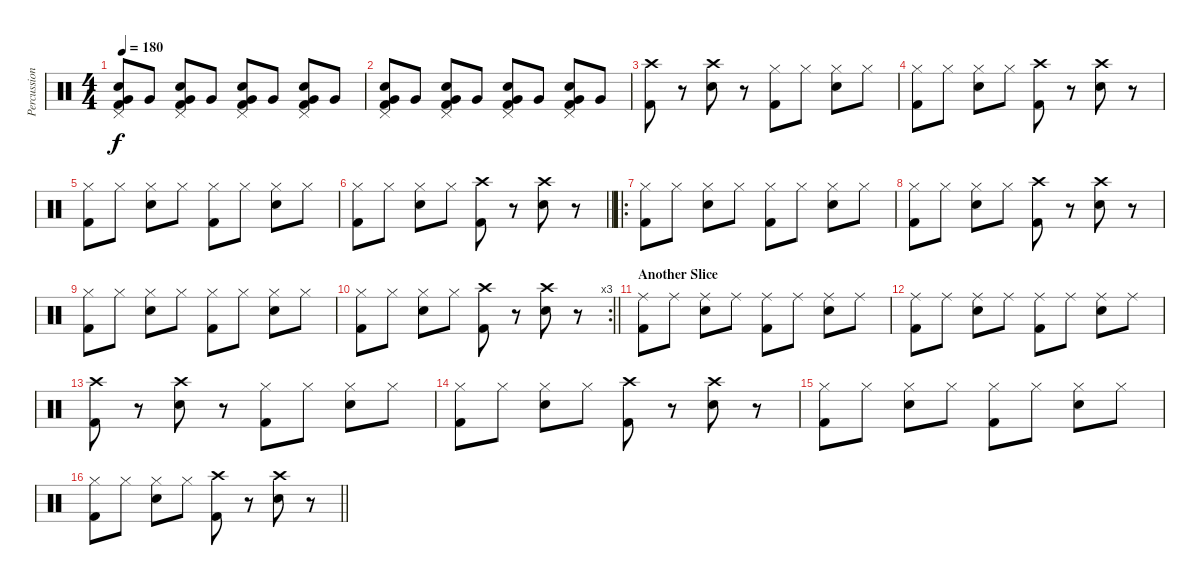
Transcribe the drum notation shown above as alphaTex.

\track ("Percussion" "Percussion") {instrument percussion}
\staff {score}
\articulation defaults
\ts (4 4)
\tempo 180
\clef neutral
\ks c
("Pedal Hi-Hat (hit)" "Very Low Tom (hit)" "Electric Snare (hit)" "Kick (hit) 2").8{dy f} "Very Low Tom (hit)".8 ("Pedal Hi-Hat (hit)" "Very Low Tom (hit)" "Electric Snare (hit)" "Kick (hit) 2").8 "Very Low Tom (hit)".8 ("Pedal Hi-Hat (hit)" "Very Low Tom (hit)" "Electric Snare (hit)" "Kick (hit) 2").8 "Very Low Tom (hit)".8 ("Pedal Hi-Hat (hit)" "Very Low Tom (hit)" "Electric Snare (hit)" "Kick (hit) 2").8 "Very Low Tom (hit)".8 |
("Pedal Hi-Hat (hit)" "Very Low Tom (hit)" "Electric Snare (hit)" "Kick (hit) 2").8 "Very Low Tom (hit)".8 ("Pedal Hi-Hat (hit)" "Very Low Tom (hit)" "Electric Snare (hit)" "Kick (hit) 2").8 "Very Low Tom (hit)".8 ("Pedal Hi-Hat (hit)" "Very Low Tom (hit)" "Electric Snare (hit)" "Kick (hit) 2").8 "Very Low Tom (hit)".8 ("Pedal Hi-Hat (hit)" "Very Low Tom (hit)" "Electric Snare (hit)" "Kick (hit) 2").8 "Very Low Tom (hit)".8 |
("Crash high (hit)" "Kick (hit) 2").8 r.8 ("Crash high (hit)" "Electric Snare (hit)").8 r.8 ("Hi-Hat (closed)" "Kick (hit) 2").8 "Hi-Hat (closed)".8 ("Hi-Hat (closed)" "Electric Snare (hit)").8 "Hi-Hat (closed)".8 |
("Hi-Hat (closed)" "Kick (hit) 2").8 "Hi-Hat (closed)".8 ("Hi-Hat (closed)" "Electric Snare (hit)").8 "Hi-Hat (closed)".8 ("Crash high (hit)" "Kick (hit) 2").8 r.8 ("Crash high (hit)" "Electric Snare (hit)").8 r.8 |
("Hi-Hat (closed)" "Kick (hit) 2").8 "Hi-Hat (closed)".8 ("Hi-Hat (closed)" "Electric Snare (hit)").8 "Hi-Hat (closed)".8 ("Hi-Hat (closed)" "Kick (hit) 2").8 "Hi-Hat (closed)".8 ("Hi-Hat (closed)" "Electric Snare (hit)").8 "Hi-Hat (closed)".8 |
\barLineRight lightlight
("Hi-Hat (closed)" "Kick (hit) 2").8 "Hi-Hat (closed)".8 ("Hi-Hat (closed)" "Electric Snare (hit)").8 "Hi-Hat (closed)".8 ("Crash high (hit)" "Kick (hit) 2").8 r.8 ("Crash high (hit)" "Electric Snare (hit)").8 r.8 |
\ro
("Hi-Hat (closed)" "Kick (hit) 2").8 "Hi-Hat (closed)".8 ("Hi-Hat (closed)" "Electric Snare (hit)").8 "Hi-Hat (closed)".8 ("Hi-Hat (closed)" "Kick (hit) 2").8 "Hi-Hat (closed)".8 ("Hi-Hat (closed)" "Electric Snare (hit)").8 "Hi-Hat (closed)".8 |
("Hi-Hat (closed)" "Kick (hit) 2").8 "Hi-Hat (closed)".8 ("Hi-Hat (closed)" "Electric Snare (hit)").8 "Hi-Hat (closed)".8 ("Crash high (hit)" "Kick (hit) 2").8 r.8 ("Crash high (hit)" "Electric Snare (hit)").8 r.8 |
("Hi-Hat (closed)" "Kick (hit) 2").8 "Hi-Hat (closed)".8 ("Hi-Hat (closed)" "Electric Snare (hit)").8 "Hi-Hat (closed)".8 ("Hi-Hat (closed)" "Kick (hit) 2").8 "Hi-Hat (closed)".8 ("Hi-Hat (closed)" "Electric Snare (hit)").8 "Hi-Hat (closed)".8 |
\rc 3
\barLineRight lightlight
("Hi-Hat (closed)" "Kick (hit) 2").8 "Hi-Hat (closed)".8 ("Hi-Hat (closed)" "Electric Snare (hit)").8 "Hi-Hat (closed)".8 ("Crash high (hit)" "Kick (hit) 2").8 r.8 ("Crash high (hit)" "Electric Snare (hit)").8 r.8 |
\section ("" "Another Slice")
("Ride (middle)" "Kick (hit) 2").8 "Ride (middle)".8 ("Ride (middle)" "Electric Snare (hit)").8 "Ride (middle)".8 ("Ride (middle)" "Kick (hit) 2").8 "Ride (middle)".8 ("Ride (middle)" "Electric Snare (hit)").8 "Ride (middle)".8 |
("Ride (middle)" "Kick (hit) 2").8 "Ride (middle)".8 ("Ride (middle)" "Electric Snare (hit)").8 "Ride (middle)".8 ("Ride (middle)" "Kick (hit) 2").8 "Ride (middle)".8 ("Ride (middle)" "Electric Snare (hit)").8 "Ride (middle)".8 |
("Crash high (hit)" "Kick (hit) 2").8 r.8 ("Crash high (hit)" "Electric Snare (hit)").8 r.8 ("Hi-Hat (closed)" "Kick (hit) 2").8 "Hi-Hat (closed)".8 ("Hi-Hat (closed)" "Electric Snare (hit)").8 "Hi-Hat (closed)".8 |
("Hi-Hat (closed)" "Kick (hit) 2").8 "Hi-Hat (closed)".8 ("Hi-Hat (closed)" "Electric Snare (hit)").8 "Hi-Hat (closed)".8 ("Crash high (hit)" "Kick (hit) 2").8 r.8 ("Crash high (hit)" "Electric Snare (hit)").8 r.8 |
("Hi-Hat (closed)" "Kick (hit) 2").8 "Hi-Hat (closed)".8 ("Hi-Hat (closed)" "Electric Snare (hit)").8 "Hi-Hat (closed)".8 ("Hi-Hat (closed)" "Kick (hit) 2").8 "Hi-Hat (closed)".8 ("Hi-Hat (closed)" "Electric Snare (hit)").8 "Hi-Hat (closed)".8 |
\barLineRight lightlight
("Hi-Hat (closed)" "Kick (hit) 2").8 "Hi-Hat (closed)".8 ("Hi-Hat (closed)" "Electric Snare (hit)").8 "Hi-Hat (closed)".8 ("Crash high (hit)" "Kick (hit) 2").8 r.8 ("Crash high (hit)" "Electric Snare (hit)").8 r.8
